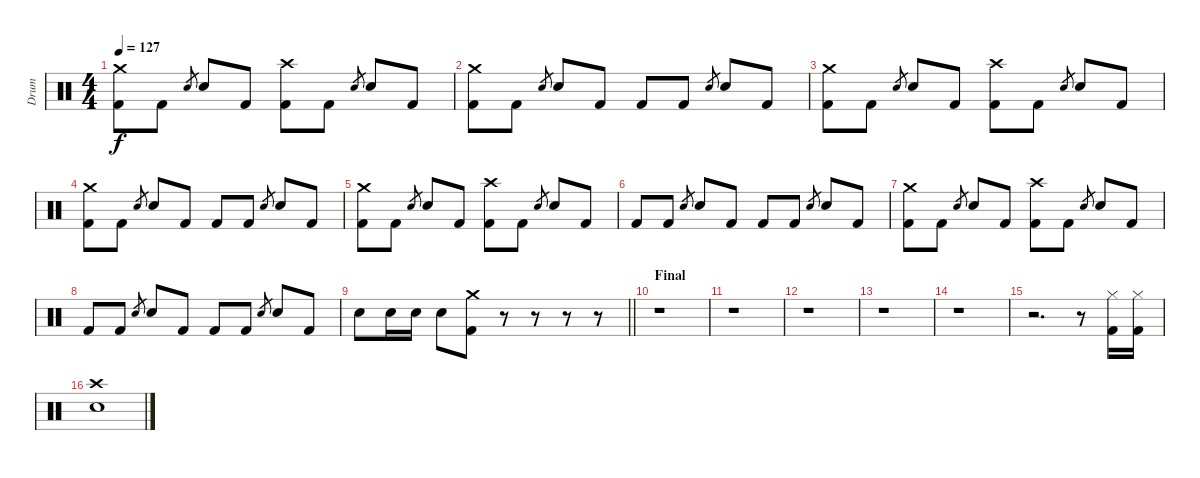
\track ("Drum" "Drum") {instrument percussion}
\staff {score}
\articulation defaults
\ts (4 4)
\tempo 127
\clef neutral
\ks c
("Crash medium (hit)" "Kick (hit) 2").8{dy f} "Kick (hit) 2".8 "Electric Snare (hit)".8{gr} "Electric Snare (hit)".8 "Kick (hit) 2".8 ("Crash high (hit)" "Kick (hit) 2").8 "Kick (hit) 2".8 "Electric Snare (hit)".8{gr} "Electric Snare (hit)".8 "Kick (hit) 2".8 |
("Crash medium (hit)" "Kick (hit) 2").8 "Kick (hit) 2".8 "Electric Snare (hit)".8{gr} "Electric Snare (hit)".8 "Kick (hit) 2".8 "Kick (hit) 2".8 "Kick (hit) 2".8 "Electric Snare (hit)".8{gr} "Electric Snare (hit)".8 "Kick (hit) 2".8 |
("Crash medium (hit)" "Kick (hit) 2").8 "Kick (hit) 2".8 "Electric Snare (hit)".8{gr} "Electric Snare (hit)".8 "Kick (hit) 2".8 ("Crash high (hit)" "Kick (hit) 2").8 "Kick (hit) 2".8 "Electric Snare (hit)".8{gr} "Electric Snare (hit)".8 "Kick (hit) 2".8 |
("Crash medium (hit)" "Kick (hit) 2").8 "Kick (hit) 2".8 "Electric Snare (hit)".8{gr} "Electric Snare (hit)".8 "Kick (hit) 2".8 "Kick (hit) 2".8 "Kick (hit) 2".8 "Electric Snare (hit)".8{gr} "Electric Snare (hit)".8 "Kick (hit) 2".8 |
("Crash medium (hit)" "Kick (hit) 2").8 "Kick (hit) 2".8 "Electric Snare (hit)".8{gr} "Electric Snare (hit)".8 "Kick (hit) 2".8 ("Crash high (hit)" "Kick (hit) 2").8 "Kick (hit) 2".8 "Electric Snare (hit)".8{gr} "Electric Snare (hit)".8 "Kick (hit) 2".8 |
"Kick (hit) 2".8 "Kick (hit) 2".8 "Electric Snare (hit)".8{gr} "Electric Snare (hit)".8 "Kick (hit) 2".8 "Kick (hit) 2".8 "Kick (hit) 2".8 "Electric Snare (hit)".8{gr} "Electric Snare (hit)".8 "Kick (hit) 2".8 |
("Crash medium (hit)" "Kick (hit) 2").8 "Kick (hit) 2".8 "Electric Snare (hit)".8{gr} "Electric Snare (hit)".8 "Kick (hit) 2".8 ("Crash high (hit)" "Kick (hit) 2").8 "Kick (hit) 2".8 "Electric Snare (hit)".8{gr} "Electric Snare (hit)".8 "Kick (hit) 2".8 |
"Kick (hit) 2".8 "Kick (hit) 2".8 "Electric Snare (hit)".8{gr} "Electric Snare (hit)".8 "Kick (hit) 2".8 "Kick (hit) 2".8 "Kick (hit) 2".8 "Electric Snare (hit)".8{gr} "Electric Snare (hit)".8 "Kick (hit) 2".8 |
\barLineRight lightlight "Electric Snare (hit)".8 "Electric Snare (hit)".16 "Electric Snare (hit)".16 "Electric Snare (hit)".8
("Crash medium (hit)" "Kick (hit) 2").8 r.8 r.8 r.8 r.8 |
\section ("" "Final")
r.1 |
r.1 |
r.1 |
r.1 |
r.1 |
r.2{d} r.8 ("Kick (hit) 2" "Hi-Hat (closed)").16 ("Kick (hit) 2" "Hi-Hat (closed)").16 |
("Crash high (hit)" "Electric Snare (hit)").1
